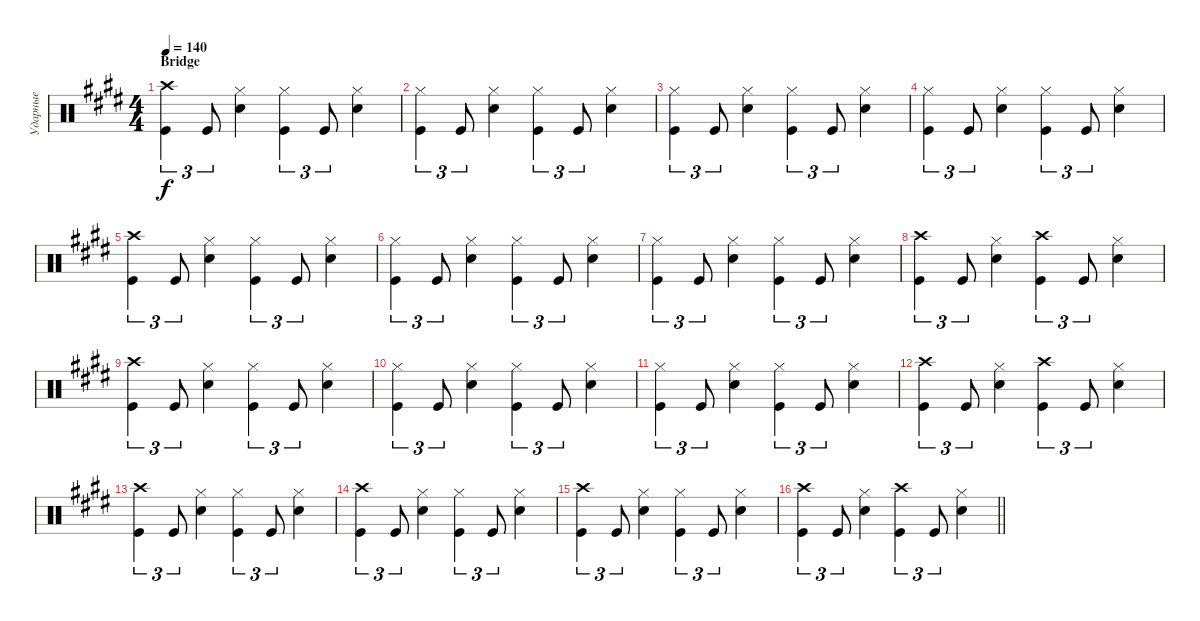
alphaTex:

\track ("Ударные" "Ударные") {instrument percussion}
\staff {score}
\articulation defaults
\ts (4 4)
\section ("" "Bridge")
\tempo 140
\clef neutral
\ks c#minor
("Kick (hit)" "Crash high (hit)").4{tu (3 2) dy f} "Kick (hit)".8{tu (3 2)} ("Snare (hit) 2" "Hi-Hat (closed)").4 ("Kick (hit)" "Hi-Hat (closed)").4{tu (3 2)} "Kick (hit)".8{tu (3 2)} ("Snare (hit) 2" "Hi-Hat (closed)").4 |
("Kick (hit)" "Hi-Hat (closed)").4{tu (3 2)} "Kick (hit)".8{tu (3 2)} ("Snare (hit) 2" "Hi-Hat (closed)").4 ("Kick (hit)" "Hi-Hat (closed)").4{tu (3 2)} "Kick (hit)".8{tu (3 2)} ("Snare (hit) 2" "Hi-Hat (closed)").4 |
("Kick (hit)" "Hi-Hat (closed)").4{tu (3 2)} "Kick (hit)".8{tu (3 2)} ("Snare (hit) 2" "Hi-Hat (closed)").4 ("Kick (hit)" "Hi-Hat (closed)").4{tu (3 2)} "Kick (hit)".8{tu (3 2)} ("Snare (hit) 2" "Hi-Hat (closed)").4 |
("Kick (hit)" "Hi-Hat (closed)").4{tu (3 2)} "Kick (hit)".8{tu (3 2)} ("Snare (hit) 2" "Hi-Hat (closed)").4 ("Kick (hit)" "Hi-Hat (closed)").4{tu (3 2)} "Kick (hit)".8{tu (3 2)} ("Snare (hit) 2" "Hi-Hat (closed)").4 |
("Kick (hit)" "Crash high (hit)").4{tu (3 2)} "Kick (hit)".8{tu (3 2)} ("Snare (hit) 2" "Hi-Hat (closed)").4 ("Kick (hit)" "Hi-Hat (closed)").4{tu (3 2)} "Kick (hit)".8{tu (3 2)} ("Snare (hit) 2" "Hi-Hat (closed)").4 |
("Kick (hit)" "Hi-Hat (closed)").4{tu (3 2)} "Kick (hit)".8{tu (3 2)} ("Snare (hit) 2" "Hi-Hat (closed)").4 ("Kick (hit)" "Hi-Hat (closed)").4{tu (3 2)} "Kick (hit)".8{tu (3 2)} ("Snare (hit) 2" "Hi-Hat (closed)").4 |
("Kick (hit)" "Hi-Hat (closed)").4{tu (3 2)} "Kick (hit)".8{tu (3 2)} ("Snare (hit) 2" "Hi-Hat (closed)").4 ("Kick (hit)" "Hi-Hat (closed)").4{tu (3 2)} "Kick (hit)".8{tu (3 2)} ("Snare (hit) 2" "Hi-Hat (closed)").4 |
("Kick (hit)" "Crash high (hit)").4{tu (3 2)} "Kick (hit)".8{tu (3 2)} ("Snare (hit) 2" "Hi-Hat (closed)").4 ("Kick (hit)" "Crash high (hit)").4{tu (3 2)} "Kick (hit)".8{tu (3 2)} ("Snare (hit) 2" "Hi-Hat (closed)").4 |
("Kick (hit)" "Crash high (hit)").4{tu (3 2)} "Kick (hit)".8{tu (3 2)} ("Snare (hit) 2" "Hi-Hat (closed)").4 ("Kick (hit)" "Hi-Hat (closed)").4{tu (3 2)} "Kick (hit)".8{tu (3 2)} ("Snare (hit) 2" "Hi-Hat (closed)").4 |
("Kick (hit)" "Hi-Hat (closed)").4{tu (3 2)} "Kick (hit)".8{tu (3 2)} ("Snare (hit) 2" "Hi-Hat (closed)").4 ("Kick (hit)" "Hi-Hat (closed)").4{tu (3 2)} "Kick (hit)".8{tu (3 2)} ("Snare (hit) 2" "Hi-Hat (closed)").4 |
("Kick (hit)" "Hi-Hat (closed)").4{tu (3 2)} "Kick (hit)".8{tu (3 2)} ("Snare (hit) 2" "Hi-Hat (closed)").4 ("Kick (hit)" "Hi-Hat (closed)").4{tu (3 2)} "Kick (hit)".8{tu (3 2)} ("Snare (hit) 2" "Hi-Hat (closed)").4 |
("Kick (hit)" "Crash high (hit)").4{tu (3 2)} "Kick (hit)".8{tu (3 2)} ("Snare (hit) 2" "Hi-Hat (closed)").4 ("Kick (hit)" "Crash high (hit)").4{tu (3 2)} "Kick (hit)".8{tu (3 2)} ("Snare (hit) 2" "Hi-Hat (closed)").4 |
("Kick (hit)" "Crash high (hit)").4{tu (3 2)} "Kick (hit)".8{tu (3 2)} ("Snare (hit) 2" "Hi-Hat (closed)").4 ("Kick (hit)" "Hi-Hat (closed)").4{tu (3 2)} "Kick (hit)".8{tu (3 2)} ("Snare (hit) 2" "Hi-Hat (closed)").4 |
("Kick (hit)" "Crash high (hit)").4{tu (3 2)} "Kick (hit)".8{tu (3 2)} ("Snare (hit) 2" "Hi-Hat (closed)").4 ("Kick (hit)" "Hi-Hat (closed)").4{tu (3 2)} "Kick (hit)".8{tu (3 2)} ("Snare (hit) 2" "Hi-Hat (closed)").4 |
("Kick (hit)" "Crash high (hit)").4{tu (3 2)} "Kick (hit)".8{tu (3 2)} ("Snare (hit) 2" "Hi-Hat (closed)").4 ("Kick (hit)" "Hi-Hat (closed)").4{tu (3 2)} "Kick (hit)".8{tu (3 2)} ("Snare (hit) 2" "Hi-Hat (closed)").4 |
\barLineRight lightlight
("Kick (hit)" "Crash high (hit)").4{tu (3 2)} "Kick (hit)".8{tu (3 2)} ("Snare (hit) 2" "Hi-Hat (closed)").4 ("Kick (hit)" "Crash high (hit)").4{tu (3 2)} "Kick (hit)".8{tu (3 2)} ("Snare (hit) 2" "Hi-Hat (closed)").4
